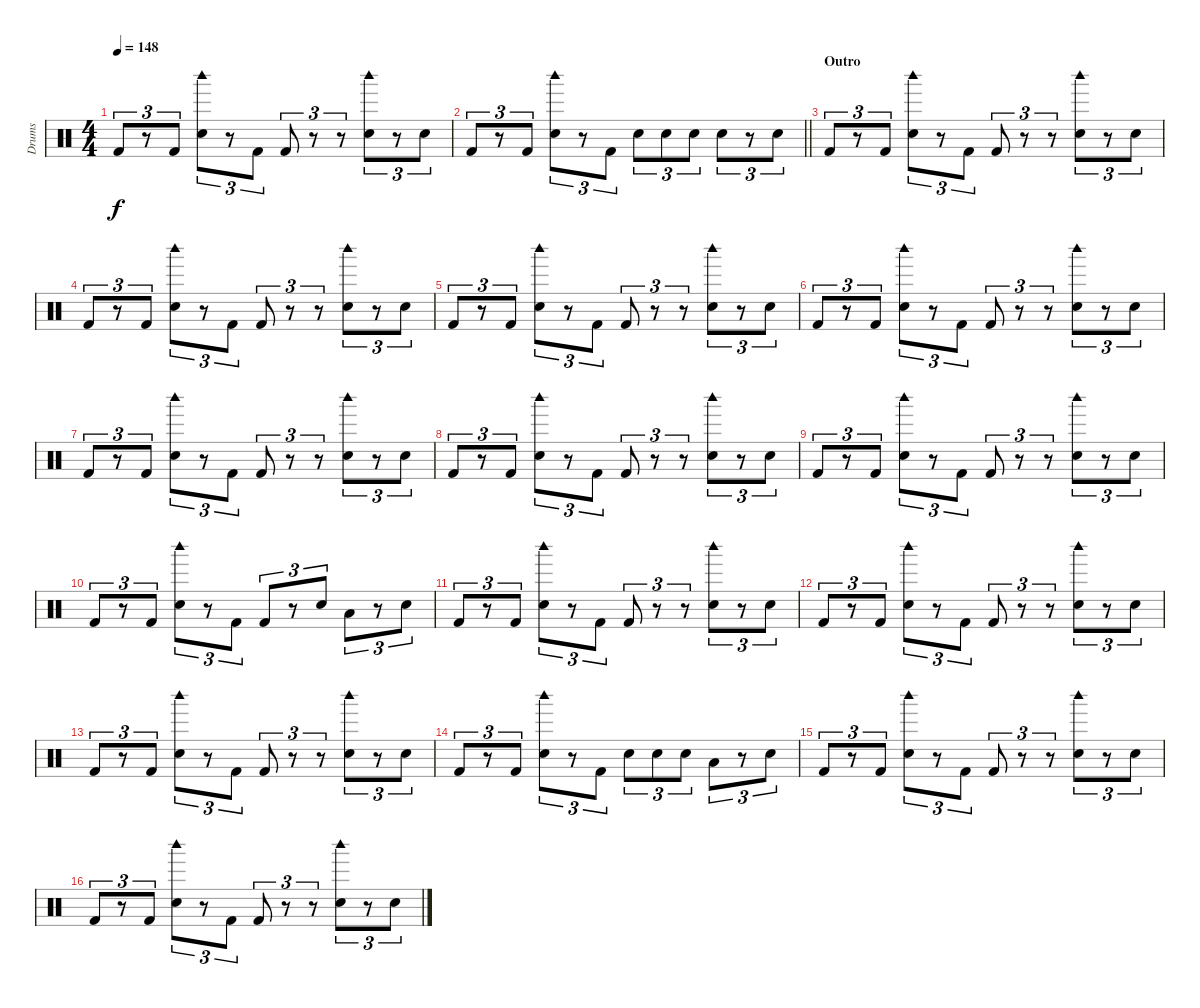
\track ("Drums" "Drums") {instrument percussion}
\staff {score}
\articulation defaults
\ts (4 4)
\tempo 148
\clef neutral
\ks c "Kick (hit) 2".8{tu (3 2) dy f}
r.8{tu (3 2)} "Kick (hit) 2".8{tu (3 2)} ("Woodblock high (hit)" "Snare (hit) 2").8{tu (3 2)} r.8{tu (3 2)} "Kick (hit) 2".8{tu (3 2)} "Kick (hit) 2".8{tu (3 2)} r.8{tu (3 2)} r.8{tu (3 2)} ("Woodblock high (hit)" "Snare (hit) 2").8{tu (3 2)} r.8{tu (3 2)} "Snare (hit) 2".8{tu (3 2)} |
\barLineRight lightlight "Kick (hit) 2".8{tu (3 2)}
r.8{tu (3 2)} "Kick (hit) 2".8{tu (3 2)} ("Woodblock high (hit)" "Snare (hit) 2").8{tu (3 2)} r.8{tu (3 2)} "Kick (hit) 2".8{tu (3 2)} "Snare (hit) 2".8{tu (3 2)} "Snare (hit) 2".8{tu (3 2)} "Snare (hit) 2".8{tu (3 2)} "Snare (hit) 2".8{tu (3 2)} r.8{tu (3 2)} "Snare (hit) 2".8{tu (3 2)} |
\section ("" "Outro")
"Kick (hit) 2".8{tu (3 2)} r.8{tu (3 2)} "Kick (hit) 2".8{tu (3 2)} ("Woodblock high (hit)" "Snare (hit) 2").8{tu (3 2)} r.8{tu (3 2)} "Kick (hit) 2".8{tu (3 2)} "Kick (hit) 2".8{tu (3 2)} r.8{tu (3 2)} r.8{tu (3 2)} ("Woodblock high (hit)" "Snare (hit) 2").8{tu (3 2)} r.8{tu (3 2)} "Snare (hit) 2".8{tu (3 2)} |
"Kick (hit) 2".8{tu (3 2)} r.8{tu (3 2)} "Kick (hit) 2".8{tu (3 2)} ("Woodblock high (hit)" "Snare (hit) 2").8{tu (3 2)} r.8{tu (3 2)} "Kick (hit) 2".8{tu (3 2)} "Kick (hit) 2".8{tu (3 2)} r.8{tu (3 2)} r.8{tu (3 2)} ("Woodblock high (hit)" "Snare (hit) 2").8{tu (3 2)} r.8{tu (3 2)} "Snare (hit) 2".8{tu (3 2)} |
"Kick (hit) 2".8{tu (3 2)} r.8{tu (3 2)} "Kick (hit) 2".8{tu (3 2)} ("Woodblock high (hit)" "Snare (hit) 2").8{tu (3 2)} r.8{tu (3 2)} "Kick (hit) 2".8{tu (3 2)} "Kick (hit) 2".8{tu (3 2)} r.8{tu (3 2)} r.8{tu (3 2)} ("Woodblock high (hit)" "Snare (hit) 2").8{tu (3 2)} r.8{tu (3 2)} "Snare (hit) 2".8{tu (3 2)} |
"Kick (hit) 2".8{tu (3 2)} r.8{tu (3 2)} "Kick (hit) 2".8{tu (3 2)} ("Woodblock high (hit)" "Snare (hit) 2").8{tu (3 2)} r.8{tu (3 2)} "Kick (hit) 2".8{tu (3 2)} "Kick (hit) 2".8{tu (3 2)} r.8{tu (3 2)} r.8{tu (3 2)} ("Woodblock high (hit)" "Snare (hit) 2").8{tu (3 2)} r.8{tu (3 2)} "Snare (hit) 2".8{tu (3 2)} |
"Kick (hit) 2".8{tu (3 2)} r.8{tu (3 2)} "Kick (hit) 2".8{tu (3 2)} ("Woodblock high (hit)" "Snare (hit) 2").8{tu (3 2)} r.8{tu (3 2)} "Kick (hit) 2".8{tu (3 2)} "Kick (hit) 2".8{tu (3 2)} r.8{tu (3 2)} r.8{tu (3 2)} ("Woodblock high (hit)" "Snare (hit) 2").8{tu (3 2)} r.8{tu (3 2)} "Snare (hit) 2".8{tu (3 2)} |
"Kick (hit) 2".8{tu (3 2)} r.8{tu (3 2)} "Kick (hit) 2".8{tu (3 2)} ("Woodblock high (hit)" "Snare (hit) 2").8{tu (3 2)} r.8{tu (3 2)} "Kick (hit) 2".8{tu (3 2)} "Kick (hit) 2".8{tu (3 2)} r.8{tu (3 2)} r.8{tu (3 2)} ("Woodblock high (hit)" "Snare (hit) 2").8{tu (3 2)} r.8{tu (3 2)} "Snare (hit) 2".8{tu (3 2)} |
"Kick (hit) 2".8{tu (3 2)} r.8{tu (3 2)} "Kick (hit) 2".8{tu (3 2)} ("Woodblock high (hit)" "Snare (hit) 2").8{tu (3 2)} r.8{tu (3 2)} "Kick (hit) 2".8{tu (3 2)} "Kick (hit) 2".8{tu (3 2)} r.8{tu (3 2)} r.8{tu (3 2)} ("Woodblock high (hit)" "Snare (hit) 2").8{tu (3 2)} r.8{tu (3 2)} "Snare (hit) 2".8{tu (3 2)} |
"Kick (hit) 2".8{tu (3 2)} r.8{tu (3 2)} "Kick (hit) 2".8{tu (3 2)} ("Woodblock high (hit)" "Snare (hit) 2").8{tu (3 2)} r.8{tu (3 2)} "Kick (hit) 2".8{tu (3 2)} "Kick (hit) 2".8{tu (3 2)} r.8{tu (3 2)} "Snare (hit) 2".8{tu (3 2)} "Low Tom (hit)".8{tu (3 2)} r.8{tu (3 2)} "Snare (hit) 2".8{tu (3 2)} |
"Kick (hit) 2".8{tu (3 2)} r.8{tu (3 2)} "Kick (hit) 2".8{tu (3 2)} ("Woodblock high (hit)" "Snare (hit) 2").8{tu (3 2)} r.8{tu (3 2)} "Kick (hit) 2".8{tu (3 2)} "Kick (hit) 2".8{tu (3 2)} r.8{tu (3 2)} r.8{tu (3 2)} ("Woodblock high (hit)" "Snare (hit) 2").8{tu (3 2)} r.8{tu (3 2)} "Snare (hit) 2".8{tu (3 2)} |
"Kick (hit) 2".8{tu (3 2)} r.8{tu (3 2)} "Kick (hit) 2".8{tu (3 2)} ("Woodblock high (hit)" "Snare (hit) 2").8{tu (3 2)} r.8{tu (3 2)} "Kick (hit) 2".8{tu (3 2)} "Kick (hit) 2".8{tu (3 2)} r.8{tu (3 2)} r.8{tu (3 2)} ("Woodblock high (hit)" "Snare (hit) 2").8{tu (3 2)} r.8{tu (3 2)} "Snare (hit) 2".8{tu (3 2)} |
"Kick (hit) 2".8{tu (3 2)} r.8{tu (3 2)} "Kick (hit) 2".8{tu (3 2)} ("Woodblock high (hit)" "Snare (hit) 2").8{tu (3 2)} r.8{tu (3 2)} "Kick (hit) 2".8{tu (3 2)} "Kick (hit) 2".8{tu (3 2)} r.8{tu (3 2)} r.8{tu (3 2)} ("Woodblock high (hit)" "Snare (hit) 2").8{tu (3 2)} r.8{tu (3 2)} "Snare (hit) 2".8{tu (3 2)} |
"Kick (hit) 2".8{tu (3 2)} r.8{tu (3 2)} "Kick (hit) 2".8{tu (3 2)} ("Woodblock high (hit)" "Snare (hit) 2").8{tu (3 2)} r.8{tu (3 2)} "Kick (hit) 2".8{tu (3 2)} "Snare (hit) 2".8{tu (3 2)} "Snare (hit) 2".8{tu (3 2)} "Snare (hit) 2".8{tu (3 2)} "Low Tom (hit)".8{tu (3 2)} r.8{tu (3 2)} "Snare (hit) 2".8{tu (3 2)} |
"Kick (hit) 2".8{tu (3 2)} r.8{tu (3 2)} "Kick (hit) 2".8{tu (3 2)} ("Woodblock high (hit)" "Snare (hit) 2").8{tu (3 2)} r.8{tu (3 2)} "Kick (hit) 2".8{tu (3 2)} "Kick (hit) 2".8{tu (3 2)} r.8{tu (3 2)} r.8{tu (3 2)} ("Woodblock high (hit)" "Snare (hit) 2").8{tu (3 2)} r.8{tu (3 2)} "Snare (hit) 2".8{tu (3 2)} |
"Kick (hit) 2".8{tu (3 2)} r.8{tu (3 2)} "Kick (hit) 2".8{tu (3 2)} ("Woodblock high (hit)" "Snare (hit) 2").8{tu (3 2)} r.8{tu (3 2)} "Kick (hit) 2".8{tu (3 2)} "Kick (hit) 2".8{tu (3 2)} r.8{tu (3 2)} r.8{tu (3 2)} ("Woodblock high (hit)" "Snare (hit) 2").8{tu (3 2)} r.8{tu (3 2)} "Snare (hit) 2".8{tu (3 2)}
